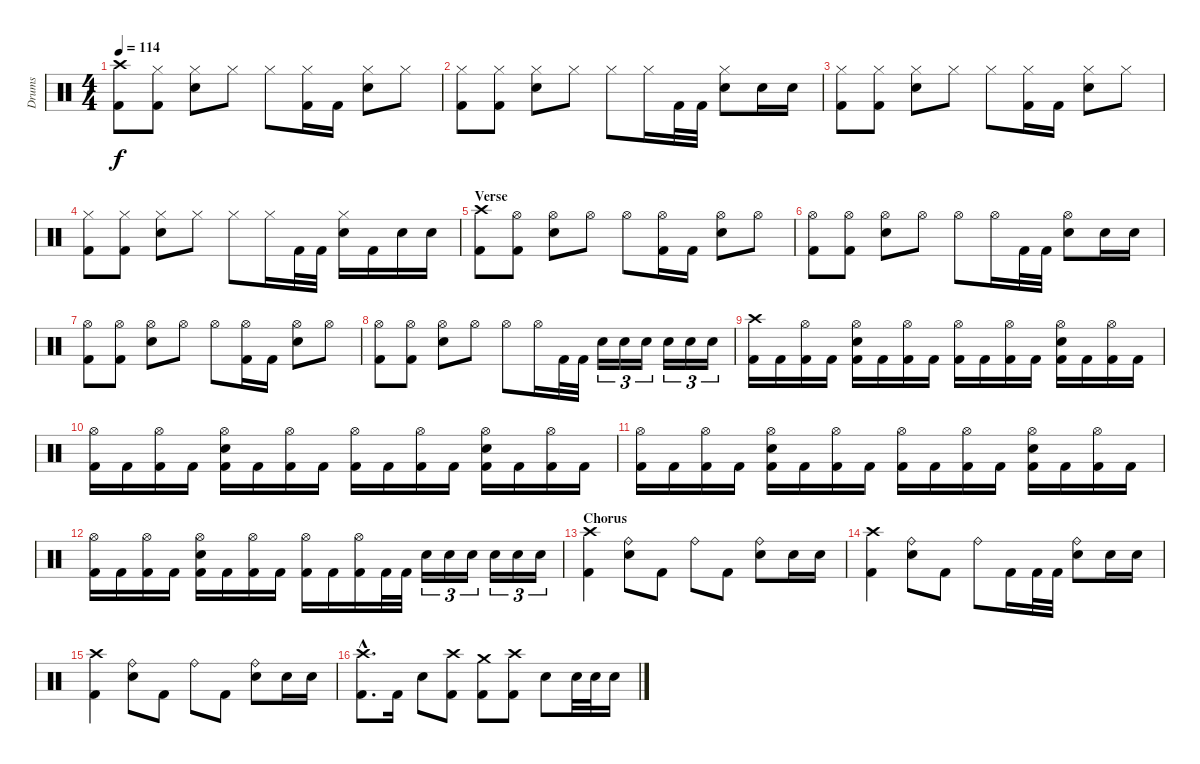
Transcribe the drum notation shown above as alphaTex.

\track ("Drums" "Drums") {instrument percussion}
\staff {score}
\articulation defaults
\ts (4 4)
\section ("" "")
\tempo 114
\clef neutral
\ks c
("Crash high (hit)" "Kick (hit) 2").8{dy f} ("Hi-Hat (closed)" "Kick (hit) 2").8 ("Hi-Hat (closed)" "Electric Snare (hit)").8 "Hi-Hat (closed)".8 "Hi-Hat (closed)".8 ("Hi-Hat (closed)" "Kick (hit) 2").16 "Kick (hit) 2".16 ("Hi-Hat (closed)" "Electric Snare (hit)").8 "Hi-Hat (closed)".8 |
("Hi-Hat (closed)" "Kick (hit) 2").8 ("Hi-Hat (closed)" "Kick (hit) 2").8 ("Hi-Hat (closed)" "Electric Snare (hit)").8 "Hi-Hat (closed)".8 "Hi-Hat (closed)".8 "Hi-Hat (closed)".16 "Kick (hit) 2".32 "Kick (hit) 2".32 ("Hi-Hat (closed)" "Electric Snare (hit)").8 "Electric Snare (hit)".16 "Electric Snare (hit)".16 |
("Hi-Hat (closed)" "Kick (hit) 2").8 ("Hi-Hat (closed)" "Kick (hit) 2").8 ("Hi-Hat (closed)" "Electric Snare (hit)").8 "Hi-Hat (closed)".8 "Hi-Hat (closed)".8 ("Hi-Hat (closed)" "Kick (hit) 2").16 "Kick (hit) 2".16 ("Hi-Hat (closed)" "Electric Snare (hit)").8 "Hi-Hat (closed)".8 |
("Hi-Hat (closed)" "Kick (hit) 2").8 ("Hi-Hat (closed)" "Kick (hit) 2").8 ("Hi-Hat (closed)" "Electric Snare (hit)").8 "Hi-Hat (closed)".8 "Hi-Hat (closed)".8 "Hi-Hat (closed)".16 "Kick (hit) 2".32 "Kick (hit) 2".32 ("Hi-Hat (closed)" "Electric Snare (hit)").16 "Kick (hit) 2".16 "Electric Snare (hit)".16 "Electric Snare (hit)".16 |
\section ("" "Verse")
("Crash high (hit)" "Kick (hit) 2").8 ("Hi-Hat (open)" "Kick (hit) 2").8 ("Hi-Hat (open)" "Electric Snare (hit)").8 "Hi-Hat (open)".8 "Hi-Hat (open)".8 ("Hi-Hat (open)" "Kick (hit) 2").16 "Kick (hit) 2".16 ("Hi-Hat (open)" "Electric Snare (hit)").8 "Hi-Hat (open)".8 |
("Hi-Hat (open)" "Kick (hit) 2").8 ("Hi-Hat (open)" "Kick (hit) 2").8 ("Hi-Hat (open)" "Electric Snare (hit)").8 "Hi-Hat (open)".8 "Hi-Hat (open)".8 "Hi-Hat (open)".16 "Kick (hit) 2".32 "Kick (hit) 2".32 ("Hi-Hat (open)" "Electric Snare (hit)").8 "Electric Snare (hit)".16 "Electric Snare (hit)".16 |
("Hi-Hat (open)" "Kick (hit) 2").8 ("Hi-Hat (open)" "Kick (hit) 2").8 ("Hi-Hat (open)" "Electric Snare (hit)").8 "Hi-Hat (open)".8 "Hi-Hat (open)".8 ("Hi-Hat (open)" "Kick (hit) 2").16 "Kick (hit) 2".16 ("Hi-Hat (open)" "Electric Snare (hit)").8 "Hi-Hat (open)".8 |
("Hi-Hat (open)" "Kick (hit) 2").8 ("Hi-Hat (open)" "Kick (hit) 2").8 ("Hi-Hat (open)" "Electric Snare (hit)").8 "Hi-Hat (open)".8 "Hi-Hat (open)".8 "Hi-Hat (open)".16 "Kick (hit) 2".32 "Kick (hit) 2".32 "Electric Snare (hit)".16{tu (3 2)} "Electric Snare (hit)".16{tu (3 2)} "Electric Snare (hit)".16{tu (3 2)} "Electric Snare (hit)".16{tu (3 2)} "Electric Snare (hit)".16{tu (3 2)} "Electric Snare (hit)".16{tu (3 2)} |
("Crash high (hit)" "Kick (hit) 2").16 "Kick (hit) 2".16 ("Hi-Hat (open)" "Kick (hit) 2").16 "Kick (hit) 2".16 ("Hi-Hat (open)" "Electric Snare (hit)" "Kick (hit) 2").16 "Kick (hit) 2".16 ("Hi-Hat (open)" "Kick (hit) 2").16 "Kick (hit) 2".16 ("Hi-Hat (open)" "Kick (hit) 2").16 "Kick (hit) 2".16 ("Hi-Hat (open)" "Kick (hit) 2").16 "Kick (hit) 2".16 ("Hi-Hat (open)" "Electric Snare (hit)" "Kick (hit) 2").16 "Kick (hit) 2".16 ("Hi-Hat (open)" "Kick (hit) 2").16 "Kick (hit) 2".16 |
("Hi-Hat (open)" "Kick (hit) 2").16 "Kick (hit) 2".16 ("Hi-Hat (open)" "Kick (hit) 2").16 "Kick (hit) 2".16 ("Hi-Hat (open)" "Electric Snare (hit)" "Kick (hit) 2").16 "Kick (hit) 2".16 ("Hi-Hat (open)" "Kick (hit) 2").16 "Kick (hit) 2".16 ("Hi-Hat (open)" "Kick (hit) 2").16 "Kick (hit) 2".16 ("Hi-Hat (open)" "Kick (hit) 2").16 "Kick (hit) 2".16 ("Hi-Hat (open)" "Electric Snare (hit)" "Kick (hit) 2").16 "Kick (hit) 2".16 ("Hi-Hat (open)" "Kick (hit) 2").16 "Kick (hit) 2".16 |
("Hi-Hat (open)" "Kick (hit) 2").16 "Kick (hit) 2".16 ("Hi-Hat (open)" "Kick (hit) 2").16 "Kick (hit) 2".16 ("Hi-Hat (open)" "Electric Snare (hit)" "Kick (hit) 2").16 "Kick (hit) 2".16 ("Hi-Hat (open)" "Kick (hit) 2").16 "Kick (hit) 2".16 ("Hi-Hat (open)" "Kick (hit) 2").16 "Kick (hit) 2".16 ("Hi-Hat (open)" "Kick (hit) 2").16 "Kick (hit) 2".16 ("Hi-Hat (open)" "Electric Snare (hit)" "Kick (hit) 2").16 "Kick (hit) 2".16 ("Hi-Hat (open)" "Kick (hit) 2").16 "Kick (hit) 2".16 |
("Hi-Hat (open)" "Kick (hit) 2").16 "Kick (hit) 2".16 ("Hi-Hat (open)" "Kick (hit) 2").16 "Kick (hit) 2".16 ("Hi-Hat (open)" "Electric Snare (hit)" "Kick (hit) 2").16 "Kick (hit) 2".16 ("Hi-Hat (open)" "Kick (hit) 2").16 "Kick (hit) 2".16 ("Hi-Hat (open)" "Kick (hit) 2").16 "Kick (hit) 2".16 ("Hi-Hat (open)" "Kick (hit) 2").16 "Kick (hit) 2".32 "Kick (hit) 2".32 "Electric Snare (hit)".16{tu (3 2)} "Electric Snare (hit)".16{tu (3 2)} "Electric Snare (hit)".16{tu (3 2)} "Electric Snare (hit)".16{tu (3 2)} "Electric Snare (hit)".16{tu (3 2)} "Electric Snare (hit)".16{tu (3 2)} |
\section ("" "Chorus")
("Crash high (hit)" "Kick (hit) 2").4 ("Ride (bell)" "Electric Snare (hit)").8 "Kick (hit) 2".8 "Ride (bell)".8 "Kick (hit) 2".8 ("Ride (bell)" "Electric Snare (hit)").8 "Electric Snare (hit)".16 "Electric Snare (hit)".16 |
("Crash high (hit)" "Kick (hit) 2").4 ("Ride (bell)" "Electric Snare (hit)").8 "Kick (hit) 2".8 "Ride (bell)".8 "Kick (hit) 2".16 "Kick (hit) 2".32 "Kick (hit) 2".32 ("Ride (bell)" "Electric Snare (hit)").8 "Electric Snare (hit)".16 "Electric Snare (hit)".16 |
("Crash high (hit)" "Kick (hit) 2").4 ("Ride (bell)" "Electric Snare (hit)").8 "Kick (hit) 2".8 "Ride (bell)".8 "Kick (hit) 2".8 ("Ride (bell)" "Electric Snare (hit)").8 "Electric Snare (hit)".16 "Electric Snare (hit)".16 |
("Crash high (hit)"{hac} "Kick (hit) 2"{hac}).8{d} "Kick (hit) 2".16 "Electric Snare (hit)".8 ("Crash high (hit)" "Kick (hit) 2").8 ("Crash medium (hit)" "Kick (hit) 2").8 ("Crash high (hit)" "Kick (hit) 2").8 "Electric Snare (hit)".8 "Electric Snare (hit)".32 "Electric Snare (hit)".32 "Electric Snare (hit)".16
